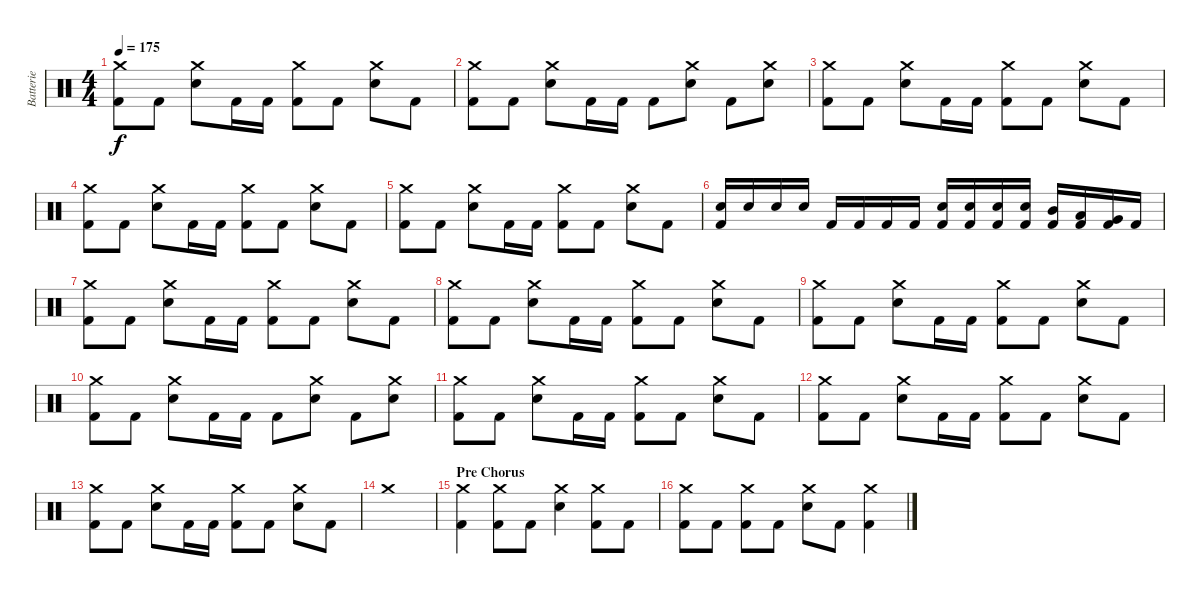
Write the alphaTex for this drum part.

\track ("Batterie" "Batterie") {instrument percussion}
\staff {score}
\articulation defaults
\ts (4 4)
\tempo 175
\clef neutral
\ks c
("Crash medium (hit)" "Kick (hit) 2").8{dy f} "Kick (hit) 2".8 ("Crash medium (hit)" "Electric Snare (hit)").8 "Kick (hit) 2".16 "Kick (hit) 2".16 ("Crash medium (hit)" "Kick (hit) 2").8 "Kick (hit) 2".8 ("Crash medium (hit)" "Electric Snare (hit)").8 "Kick (hit) 2".8 |
("Crash medium (hit)" "Kick (hit) 2").8 "Kick (hit) 2".8 ("Crash medium (hit)" "Electric Snare (hit)").8 "Kick (hit) 2".16 "Kick (hit) 2".16 "Kick (hit) 2".8 ("Crash medium (hit)" "Electric Snare (hit)").8 "Kick (hit) 2".8 ("Crash medium (hit)" "Electric Snare (hit)").8 |
("Crash medium (hit)" "Kick (hit) 2").8 "Kick (hit) 2".8 ("Crash medium (hit)" "Electric Snare (hit)").8 "Kick (hit) 2".16 "Kick (hit) 2".16 ("Crash medium (hit)" "Kick (hit) 2").8 "Kick (hit) 2".8 ("Crash medium (hit)" "Electric Snare (hit)").8 "Kick (hit) 2".8 |
("Crash medium (hit)" "Kick (hit) 2").8 "Kick (hit) 2".8 ("Crash medium (hit)" "Electric Snare (hit)").8 "Kick (hit) 2".16 "Kick (hit) 2".16 ("Crash medium (hit)" "Kick (hit) 2").8 "Kick (hit) 2".8 ("Crash medium (hit)" "Electric Snare (hit)").8 "Kick (hit) 2".8 |
("Crash medium (hit)" "Kick (hit) 2").8 "Kick (hit) 2".8 ("Crash medium (hit)" "Electric Snare (hit)").8 "Kick (hit) 2".16 "Kick (hit) 2".16 ("Crash medium (hit)" "Kick (hit) 2").8 "Kick (hit) 2".8 ("Crash medium (hit)" "Electric Snare (hit)").8 "Kick (hit) 2".8 |
("Electric Snare (hit)" "Kick (hit) 2").16 "Electric Snare (hit)".16 "Electric Snare (hit)".16 "Electric Snare (hit)".16 "Kick (hit) 2".16 "Kick (hit) 2".16 "Kick (hit) 2".16 "Kick (hit) 2".16 ("Electric Snare (hit)" "Kick (hit) 2").16 ("Electric Snare (hit)" "Kick (hit) 2").16 ("Electric Snare (hit)" "Kick (hit) 2").16 ("Electric Snare (hit)" "Kick (hit) 2").16 ("Mid Tom (hit)" "Kick (hit) 2").16 ("Low Tom (hit)" "Kick (hit) 2").16 ("Very Low Tom (hit)" "Kick (hit) 2").16 "Kick (hit) 2".16 |
("Crash medium (hit)" "Kick (hit) 2").8 "Kick (hit) 2".8 ("Crash medium (hit)" "Electric Snare (hit)").8 "Kick (hit) 2".16 "Kick (hit) 2".16 ("Crash medium (hit)" "Kick (hit) 2").8 "Kick (hit) 2".8 ("Crash medium (hit)" "Electric Snare (hit)").8 "Kick (hit) 2".8 |
("Crash medium (hit)" "Kick (hit) 2").8 "Kick (hit) 2".8 ("Crash medium (hit)" "Electric Snare (hit)").8 "Kick (hit) 2".16 "Kick (hit) 2".16 ("Crash medium (hit)" "Kick (hit) 2").8 "Kick (hit) 2".8 ("Crash medium (hit)" "Electric Snare (hit)").8 "Kick (hit) 2".8 |
("Crash medium (hit)" "Kick (hit) 2").8 "Kick (hit) 2".8 ("Crash medium (hit)" "Electric Snare (hit)").8 "Kick (hit) 2".16 "Kick (hit) 2".16 ("Crash medium (hit)" "Kick (hit) 2").8 "Kick (hit) 2".8 ("Crash medium (hit)" "Electric Snare (hit)").8 "Kick (hit) 2".8 |
("Crash medium (hit)" "Kick (hit) 2").8 "Kick (hit) 2".8 ("Crash medium (hit)" "Electric Snare (hit)").8 "Kick (hit) 2".16 "Kick (hit) 2".16 "Kick (hit) 2".8 ("Crash medium (hit)" "Electric Snare (hit)").8 "Kick (hit) 2".8 ("Crash medium (hit)" "Electric Snare (hit)").8 |
("Crash medium (hit)" "Kick (hit) 2").8 "Kick (hit) 2".8 ("Crash medium (hit)" "Electric Snare (hit)").8 "Kick (hit) 2".16 "Kick (hit) 2".16 ("Crash medium (hit)" "Kick (hit) 2").8 "Kick (hit) 2".8 ("Crash medium (hit)" "Electric Snare (hit)").8 "Kick (hit) 2".8 |
("Crash medium (hit)" "Kick (hit) 2").8 "Kick (hit) 2".8 ("Crash medium (hit)" "Electric Snare (hit)").8 "Kick (hit) 2".16 "Kick (hit) 2".16 ("Crash medium (hit)" "Kick (hit) 2").8 "Kick (hit) 2".8 ("Crash medium (hit)" "Electric Snare (hit)").8 "Kick (hit) 2".8 |
("Crash medium (hit)" "Kick (hit) 2").8 "Kick (hit) 2".8 ("Crash medium (hit)" "Electric Snare (hit)").8 "Kick (hit) 2".16 "Kick (hit) 2".16 ("Crash medium (hit)" "Kick (hit) 2").8 "Kick (hit) 2".8 ("Crash medium (hit)" "Electric Snare (hit)").8 "Kick (hit) 2".8 |
"Crash medium (hit)".1 |
\section ("" "Pre Chorus")
("Crash medium (hit)" "Kick (hit) 2").4 ("Crash medium (hit)" "Kick (hit) 2").8 "Kick (hit) 2".8 ("Crash medium (hit)" "Electric Snare (hit)").4 ("Crash medium (hit)" "Kick (hit) 2").8 "Kick (hit) 2".8 |
("Crash medium (hit)" "Kick (hit) 2").8 "Kick (hit) 2".8 ("Crash medium (hit)" "Kick (hit) 2").8 "Kick (hit) 2".8 ("Crash medium (hit)" "Electric Snare (hit)").8 "Kick (hit) 2".8 ("Crash medium (hit)" "Kick (hit) 2").4
